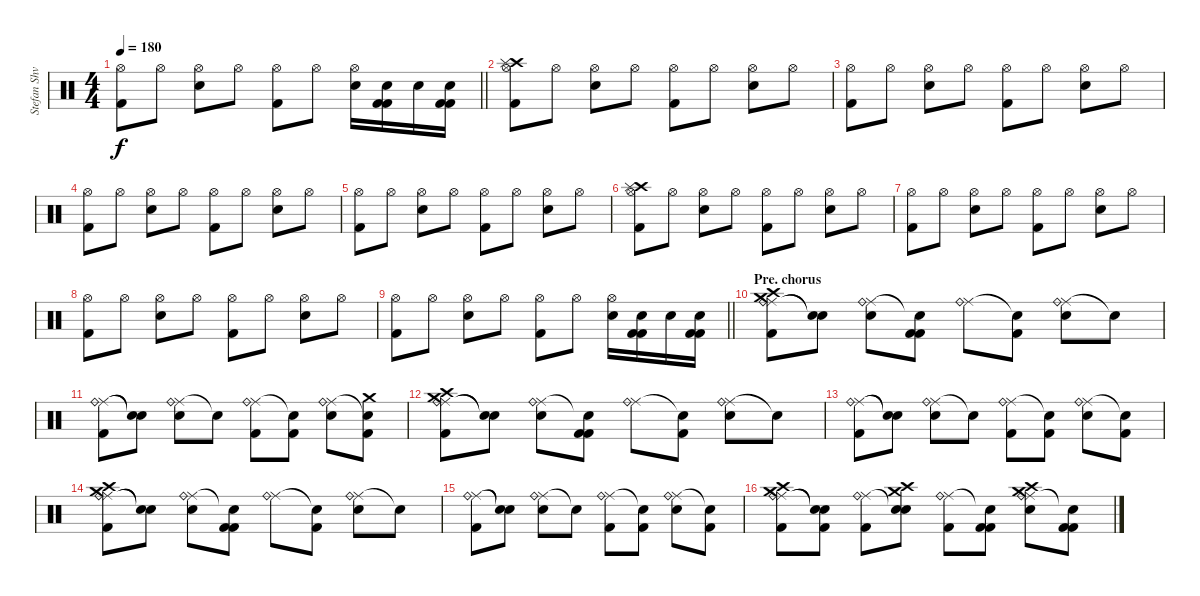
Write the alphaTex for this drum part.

\track ("Stefan Shvartsman" "Stefan Shv") {instrument percussion}
\staff {score}
\articulation defaults
\ts (4 4)
\tempo 180
\clef neutral
\barLineRight lightlight
\ks c
("Hi-Hat (open)" "Kick (hit) 2").8{dy f} "Hi-Hat (open)".8 ("Hi-Hat (open)" "Snare (hit) 2").8 "Hi-Hat (open)".8 ("Hi-Hat (open)" "Kick (hit) 2").8 "Hi-Hat (open)".8 ("Hi-Hat (open)" "Snare (hit) 2").16 ("Snare (hit) 2" "Kick (hit) 2" "Kick (hit) 2").16 "Snare (hit) 2".16 ("Snare (hit) 2" "Kick (hit) 2" "Kick (hit) 2").16 |
("Hi-Hat (open)" "Kick (hit) 2" "Crash high (hit)" "Splash (hit)").8 "Hi-Hat (open)".8 ("Hi-Hat (open)" "Snare (hit) 2").8 "Hi-Hat (open)".8 ("Hi-Hat (open)" "Kick (hit) 2").8 "Hi-Hat (open)".8 ("Hi-Hat (open)" "Snare (hit) 2").8 "Hi-Hat (open)".8 |
("Hi-Hat (open)" "Kick (hit) 2").8 "Hi-Hat (open)".8 ("Hi-Hat (open)" "Snare (hit) 2").8 "Hi-Hat (open)".8 ("Hi-Hat (open)" "Kick (hit) 2").8 "Hi-Hat (open)".8 ("Hi-Hat (open)" "Snare (hit) 2").8 "Hi-Hat (open)".8 |
("Hi-Hat (open)" "Kick (hit) 2").8 "Hi-Hat (open)".8 ("Hi-Hat (open)" "Snare (hit) 2").8 "Hi-Hat (open)".8 ("Hi-Hat (open)" "Kick (hit) 2").8 "Hi-Hat (open)".8 ("Hi-Hat (open)" "Snare (hit) 2").8 "Hi-Hat (open)".8 |
("Hi-Hat (open)" "Kick (hit) 2").8 "Hi-Hat (open)".8 ("Hi-Hat (open)" "Snare (hit) 2").8 "Hi-Hat (open)".8 ("Hi-Hat (open)" "Kick (hit) 2").8 "Hi-Hat (open)".8 ("Hi-Hat (open)" "Snare (hit) 2").8 "Hi-Hat (open)".8 |
("Hi-Hat (open)" "Kick (hit) 2" "Crash high (hit)" "Splash (hit)").8 "Hi-Hat (open)".8 ("Hi-Hat (open)" "Snare (hit) 2").8 "Hi-Hat (open)".8 ("Hi-Hat (open)" "Kick (hit) 2").8 "Hi-Hat (open)".8 ("Hi-Hat (open)" "Snare (hit) 2").8 "Hi-Hat (open)".8 |
("Hi-Hat (open)" "Kick (hit) 2").8 "Hi-Hat (open)".8 ("Hi-Hat (open)" "Snare (hit) 2").8 "Hi-Hat (open)".8 ("Hi-Hat (open)" "Kick (hit) 2").8 "Hi-Hat (open)".8 ("Hi-Hat (open)" "Snare (hit) 2").8 "Hi-Hat (open)".8 |
("Hi-Hat (open)" "Kick (hit) 2").8 "Hi-Hat (open)".8 ("Hi-Hat (open)" "Snare (hit) 2").8 "Hi-Hat (open)".8 ("Hi-Hat (open)" "Kick (hit) 2").8 "Hi-Hat (open)".8 ("Hi-Hat (open)" "Snare (hit) 2").8 "Hi-Hat (open)".8 |
\barLineRight lightlight
("Hi-Hat (open)" "Kick (hit) 2").8 "Hi-Hat (open)".8 ("Hi-Hat (open)" "Snare (hit) 2").8 "Hi-Hat (open)".8 ("Hi-Hat (open)" "Kick (hit) 2").8 "Hi-Hat (open)".8 ("Hi-Hat (open)" "Snare (hit) 2").16 ("Snare (hit) 2" "Kick (hit) 2" "Kick (hit) 2").16 "Snare (hit) 2".16 ("Snare (hit) 2" "Kick (hit) 2" "Kick (hit) 2").16 |
\section ("" "Pre. chorus")
("Ride (middle)" "Ride (bell)" "Crash medium (hit)" "Kick (hit) 2" "Crash high (hit)").8 ("Snare (hit)"{t} "Snare (hit)"{t}).8 ("Ride (middle)" "Ride (bell)" "Snare (hit) 2").8 ("Snare (hit)"{t} "Kick (hit) 2" "Kick (hit) 2").8 ("Ride (middle)" "Ride (bell)").8 ("Snare (hit)"{t} "Kick (hit) 2").8 ("Ride (middle)" "Ride (bell)" "Snare (hit) 2").8 "Snare (hit)"{t}.8 |
("Ride (middle)" "Ride (bell)" "Kick (hit) 2").8 ("Snare (hit)"{t} "Snare (hit)"{t}).8 ("Ride (middle)" "Ride (bell)" "Snare (hit) 2").8 "Snare (hit)"{t}.8 ("Ride (middle)" "Ride (bell)" "Kick (hit) 2").8 ("Snare (hit)"{t} "Kick (hit) 2").8 ("Ride (middle)" "Ride (bell)" "Snare (hit) 2").8 ("Snare (hit)"{t} "Crash medium (hit)" "Kick (hit) 2").8 |
("Ride (middle)" "Ride (bell)" "Crash medium (hit)" "Kick (hit) 2" "Crash high (hit)").8 ("Snare (hit)"{t} "Snare (hit)"{t}).8 ("Ride (middle)" "Ride (bell)" "Snare (hit) 2").8 ("Snare (hit)"{t} "Kick (hit) 2" "Kick (hit) 2").8 ("Ride (middle)" "Ride (bell)").8 ("Snare (hit)"{t} "Kick (hit) 2").8 ("Ride (middle)" "Ride (bell)" "Snare (hit) 2").8 "Snare (hit)"{t}.8 |
("Ride (middle)" "Ride (bell)" "Kick (hit) 2").8 ("Snare (hit)"{t} "Snare (hit)"{t}).8 ("Ride (middle)" "Ride (bell)" "Snare (hit) 2").8 "Snare (hit)"{t}.8 ("Ride (middle)" "Ride (bell)" "Kick (hit) 2").8 ("Snare (hit)"{t} "Kick (hit) 2").8 ("Ride (middle)" "Ride (bell)" "Snare (hit) 2").8 ("Snare (hit)"{t} "Kick (hit) 2").8 |
("Ride (middle)" "Ride (bell)" "Crash medium (hit)" "Kick (hit) 2" "Crash high (hit)").8 ("Snare (hit)"{t} "Snare (hit)"{t}).8 ("Ride (middle)" "Ride (bell)" "Snare (hit) 2").8 ("Snare (hit)"{t} "Kick (hit) 2" "Kick (hit) 2").8 ("Ride (middle)" "Ride (bell)").8 ("Snare (hit)"{t} "Kick (hit) 2").8 ("Ride (middle)" "Ride (bell)" "Snare (hit) 2").8 "Snare (hit)"{t}.8 |
("Ride (middle)" "Ride (bell)" "Kick (hit) 2").8 ("Snare (hit)"{t} "Snare (hit)"{t}).8 ("Ride (middle)" "Ride (bell)" "Snare (hit) 2").8 "Snare (hit)"{t}.8 ("Ride (middle)" "Ride (bell)" "Kick (hit) 2").8 ("Snare (hit)"{t} "Kick (hit) 2").8 ("Ride (middle)" "Ride (bell)" "Snare (hit) 2").8 ("Snare (hit)"{t} "Kick (hit) 2").8 |
("Ride (middle)" "Ride (bell)" "Crash medium (hit)" "Kick (hit) 2" "Crash high (hit)").8 ("Snare (hit)"{t} "Snare (hit)"{t} "Kick (hit) 2").8 ("Ride (middle)" "Ride (bell)" "Kick (hit) 2").8 ("Snare (hit)"{t} "Crash medium (hit)" "Crash high (hit)" "Snare (hit) 2").8 ("Ride (middle)" "Ride (bell)" "Kick (hit) 2").8 ("Snare (hit)"{t} "Kick (hit) 2" "Kick (hit) 2").8 ("Ride (middle)" "Ride (bell)" "Snare (hit) 2" "Crash medium (hit)" "Crash high (hit)").8 ("Snare (hit)"{t} "Kick (hit) 2" "Kick (hit) 2").8
